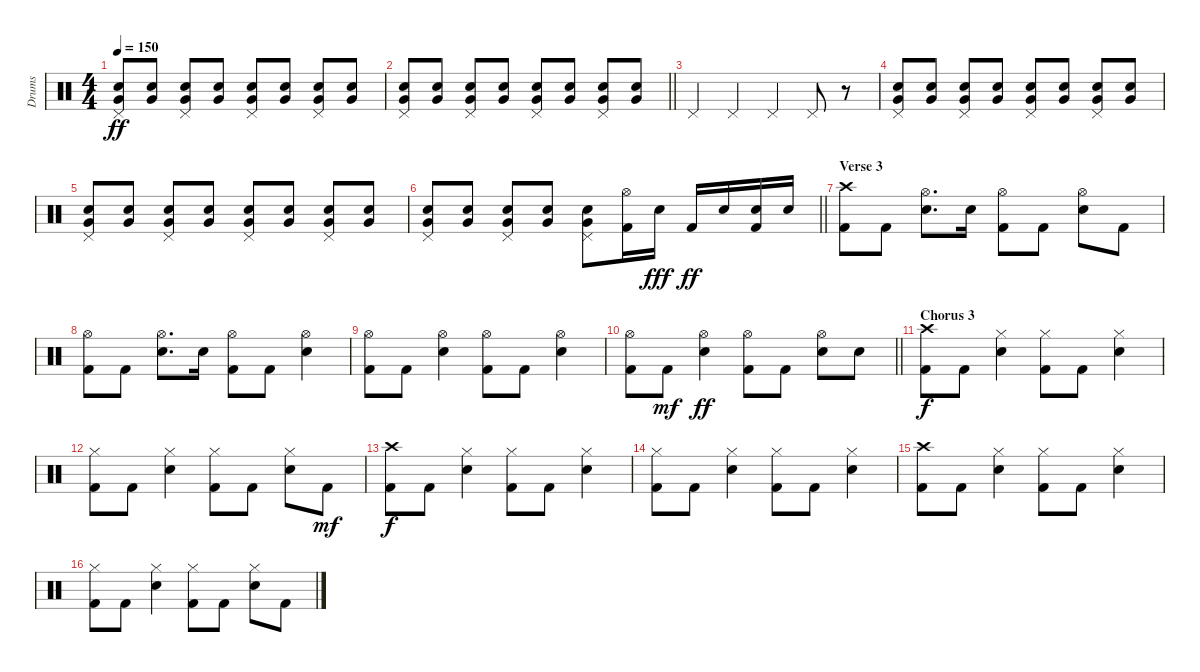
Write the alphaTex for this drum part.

\track ("Drums" "Drums") {instrument percussion}
\staff {score}
\articulation defaults
\ts (4 4)
\tempo 150
\clef neutral
\ks c
("Pedal Hi-Hat (hit)" "Electric Snare (hit)" "Very Low Tom (hit)").8{dy ff volume 13} ("Electric Snare (hit)" "Very Low Tom (hit)").8 ("Pedal Hi-Hat (hit)" "Electric Snare (hit)" "Very Low Tom (hit)").8 ("Electric Snare (hit)" "Very Low Tom (hit)").8 ("Pedal Hi-Hat (hit)" "Electric Snare (hit)" "Very Low Tom (hit)").8 ("Electric Snare (hit)" "Very Low Tom (hit)").8 ("Pedal Hi-Hat (hit)" "Electric Snare (hit)" "Very Low Tom (hit)").8 ("Electric Snare (hit)" "Very Low Tom (hit)").8 |
\barLineRight lightlight
("Pedal Hi-Hat (hit)" "Electric Snare (hit)" "Very Low Tom (hit)").8 ("Electric Snare (hit)" "Very Low Tom (hit)").8 ("Pedal Hi-Hat (hit)" "Electric Snare (hit)" "Very Low Tom (hit)").8 ("Electric Snare (hit)" "Very Low Tom (hit)").8 ("Pedal Hi-Hat (hit)" "Electric Snare (hit)" "Very Low Tom (hit)").8 ("Electric Snare (hit)" "Very Low Tom (hit)").8 ("Pedal Hi-Hat (hit)" "Electric Snare (hit)" "Very Low Tom (hit)").8 ("Electric Snare (hit)" "Very Low Tom (hit)").8 |
"Pedal Hi-Hat (hit)".4{volume 13} "Pedal Hi-Hat (hit)".4 "Pedal Hi-Hat (hit)".4 "Pedal Hi-Hat (hit)".8 r.8{volume 0} |
("Pedal Hi-Hat (hit)" "Electric Snare (hit)" "Very Low Tom (hit)").8{volume 13} ("Electric Snare (hit)" "Very Low Tom (hit)").8 ("Pedal Hi-Hat (hit)" "Electric Snare (hit)" "Very Low Tom (hit)").8 ("Electric Snare (hit)" "Very Low Tom (hit)").8 ("Pedal Hi-Hat (hit)" "Electric Snare (hit)" "Very Low Tom (hit)").8 ("Electric Snare (hit)" "Very Low Tom (hit)").8 ("Pedal Hi-Hat (hit)" "Electric Snare (hit)" "Very Low Tom (hit)").8 ("Electric Snare (hit)" "Very Low Tom (hit)").8 |
("Pedal Hi-Hat (hit)" "Electric Snare (hit)" "Very Low Tom (hit)").8 ("Electric Snare (hit)" "Very Low Tom (hit)").8 ("Pedal Hi-Hat (hit)" "Electric Snare (hit)" "Very Low Tom (hit)").8 ("Electric Snare (hit)" "Very Low Tom (hit)").8 ("Pedal Hi-Hat (hit)" "Electric Snare (hit)" "Very Low Tom (hit)").8 ("Electric Snare (hit)" "Very Low Tom (hit)").8 ("Pedal Hi-Hat (hit)" "Electric Snare (hit)" "Very Low Tom (hit)").8 ("Electric Snare (hit)" "Very Low Tom (hit)").8 |
\barLineRight lightlight
("Pedal Hi-Hat (hit)" "Electric Snare (hit)" "Very Low Tom (hit)").8 ("Electric Snare (hit)" "Very Low Tom (hit)").8 ("Pedal Hi-Hat (hit)" "Electric Snare (hit)" "Very Low Tom (hit)").8 ("Electric Snare (hit)" "Very Low Tom (hit)").8 ("Pedal Hi-Hat (hit)" "Electric Snare (hit)" "Very Low Tom (hit)").8 ("Hi-Hat (open)" "Kick (hit) 2").16 "Electric Snare (hit)".16{dy fff} "Kick (hit) 2".16{dy ff} "Electric Snare (hit)".16 ("Electric Snare (hit)" "Kick (hit) 2").16 "Electric Snare (hit)".16 |
\section ("" "Verse 3")
("Crash high (hit)" "Kick (hit) 2").8 "Kick (hit) 2".8 ("Hi-Hat (open)" "Electric Snare (hit)").8{d} "Electric Snare (hit)".16 ("Hi-Hat (open)" "Kick (hit) 2").8 "Kick (hit) 2".8 ("Hi-Hat (open)" "Electric Snare (hit)").8 "Kick (hit) 2".8 |
("Hi-Hat (open)" "Kick (hit) 2").8 "Kick (hit) 2".8 ("Hi-Hat (open)" "Electric Snare (hit)").8{d} "Electric Snare (hit)".16 ("Hi-Hat (open)" "Kick (hit) 2").8 "Kick (hit) 2".8 ("Hi-Hat (open)" "Electric Snare (hit)").4 |
("Hi-Hat (open)" "Kick (hit) 2").8 "Kick (hit) 2".8 ("Hi-Hat (open)" "Electric Snare (hit)").4 ("Hi-Hat (open)" "Kick (hit) 2").8 "Kick (hit) 2".8 ("Hi-Hat (open)" "Electric Snare (hit)").4 |
\barLineRight lightlight
("Hi-Hat (open)" "Kick (hit) 2").8 "Kick (hit) 2".8{dy mf} ("Hi-Hat (open)" "Electric Snare (hit)").4{dy ff} ("Hi-Hat (open)" "Kick (hit) 2").8 "Kick (hit) 2".8 ("Hi-Hat (open)" "Electric Snare (hit)").8 "Electric Snare (hit)".8 |
\section ("" "Chorus 3")
("Crash high (hit)" "Kick (hit) 2").8{dy f} "Kick (hit) 2".8 ("Hi-Hat (closed)" "Electric Snare (hit)").4 ("Hi-Hat (closed)" "Kick (hit) 2").8 "Kick (hit) 2".8 ("Hi-Hat (closed)" "Electric Snare (hit)").4 |
("Hi-Hat (closed)" "Kick (hit) 2").8 "Kick (hit) 2".8 ("Hi-Hat (closed)" "Electric Snare (hit)").4 ("Hi-Hat (closed)" "Kick (hit) 2").8 "Kick (hit) 2".8 ("Hi-Hat (closed)" "Electric Snare (hit)").8 "Kick (hit) 2".8{dy mf} |
("Crash high (hit)" "Kick (hit) 2").8{dy f} "Kick (hit) 2".8 ("Hi-Hat (closed)" "Electric Snare (hit)").4 ("Hi-Hat (closed)" "Kick (hit) 2").8 "Kick (hit) 2".8 ("Hi-Hat (closed)" "Electric Snare (hit)").4 |
("Hi-Hat (closed)" "Kick (hit) 2").8 "Kick (hit) 2".8 ("Hi-Hat (closed)" "Electric Snare (hit)").4 ("Hi-Hat (closed)" "Kick (hit) 2").8 "Kick (hit) 2".8 ("Hi-Hat (closed)" "Electric Snare (hit)").4 |
("Crash high (hit)" "Kick (hit) 2").8 "Kick (hit) 2".8 ("Hi-Hat (closed)" "Electric Snare (hit)").4 ("Hi-Hat (closed)" "Kick (hit) 2").8 "Kick (hit) 2".8 ("Hi-Hat (closed)" "Electric Snare (hit)").4 |
("Hi-Hat (closed)" "Kick (hit) 2").8 "Kick (hit) 2".8 ("Hi-Hat (closed)" "Electric Snare (hit)").4 ("Hi-Hat (closed)" "Kick (hit) 2").8 "Kick (hit) 2".8 ("Hi-Hat (closed)" "Electric Snare (hit)").8 "Kick (hit) 2".8
